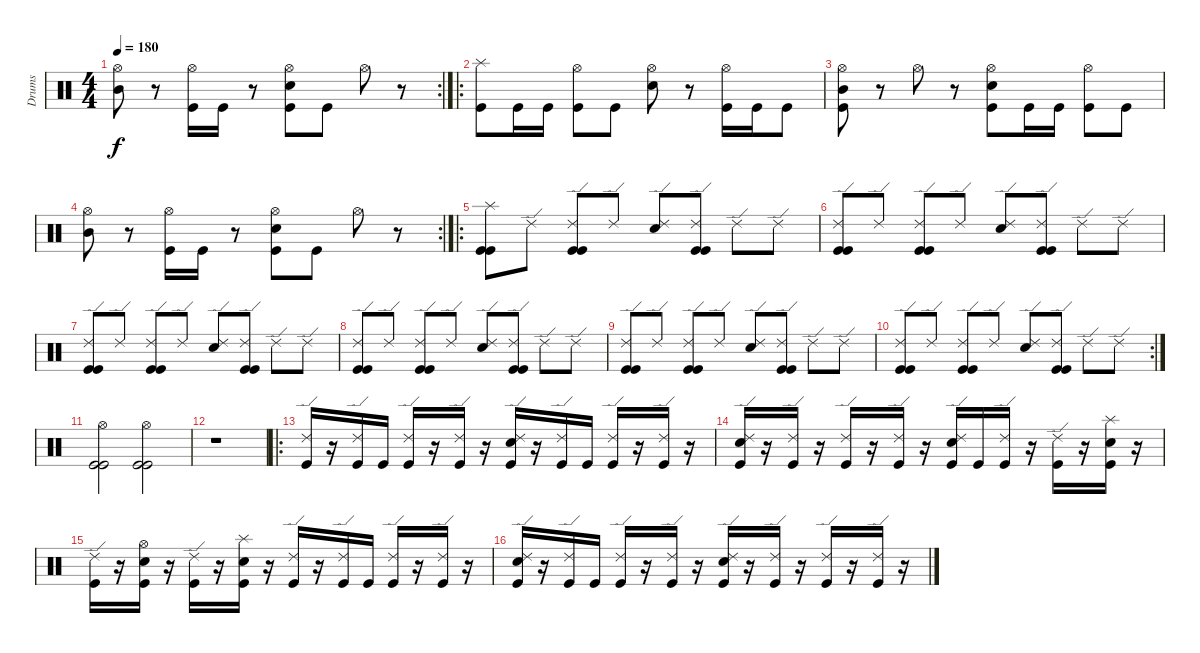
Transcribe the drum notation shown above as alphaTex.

\track ("Drums" "Drums") {instrument percussion}
\staff {score}
\articulation defaults
\rc 2
\ts (4 4)
\tempo 180
\clef neutral
\ks c
("Hi-Hat (open)" "Mid Tom (hit)").8{dy f} r.8 ("Hi-Hat (open)" "Kick (hit)").16 "Kick (hit)".16 r.8 ("Hi-Hat (open)" "Snare (hit) 2" "Kick (hit)").8 "Kick (hit)".8 "Hi-Hat (open)".8 r.8 |
\ro
("Splash (hit)" "Kick (hit)").8 "Kick (hit)".16 "Kick (hit)".16 ("Hi-Hat (open)" "Kick (hit)").8 "Kick (hit)".8 ("Hi-Hat (open)" "Snare (hit) 2").8 r.8 ("Hi-Hat (open)" "Kick (hit)").16 "Kick (hit)".16 "Kick (hit)".8 |
("Hi-Hat (open)" "Mid Tom (hit)" "Kick (hit)").8 r.8 "Hi-Hat (open)".8 r.8 ("Hi-Hat (open)" "Snare (hit) 2" "Kick (hit)").8 "Kick (hit)".16 "Kick (hit)".16 ("Hi-Hat (open)" "Kick (hit)").8 "Kick (hit)".8 |
\rc 2
("Hi-Hat (open)" "Mid Tom (hit)").8 r.8 ("Hi-Hat (open)" "Kick (hit)").16 "Kick (hit)".16 r.8 ("Hi-Hat (open)" "Snare (hit) 2" "Kick (hit)").8 "Kick (hit)".8 "Hi-Hat (open)".8 r.8 |
\ro
("Splash (hit)" "Kick (hit)" "Kick (hit)").8 "Ride (edge) 2".8 ("Ride (edge) 2" "Kick (hit)" "Kick (hit)").8 "Ride (edge) 2".8 ("Ride (edge) 2" "Snare (hit) 2").8 ("Ride (edge) 2" "Kick (hit)" "Kick (hit)").8 "Ride (edge) 2".8 "Ride (edge) 2".8 |
("Ride (edge) 2" "Kick (hit)" "Kick (hit)").8 "Ride (edge) 2".8 ("Ride (edge) 2" "Kick (hit)" "Kick (hit)").8 "Ride (edge) 2".8 ("Ride (edge) 2" "Snare (hit) 2").8 ("Ride (edge) 2" "Kick (hit)" "Kick (hit)").8 "Ride (edge) 2".8 "Ride (edge) 2".8 |
("Ride (edge) 2" "Kick (hit)" "Kick (hit)").8 "Ride (edge) 2".8 ("Ride (edge) 2" "Kick (hit)" "Kick (hit)").8 "Ride (edge) 2".8 ("Ride (edge) 2" "Snare (hit) 2").8 ("Ride (edge) 2" "Kick (hit)" "Kick (hit)").8 "Ride (edge) 2".8 "Ride (edge) 2".8 |
("Ride (edge) 2" "Kick (hit)" "Kick (hit)").8 "Ride (edge) 2".8 ("Ride (edge) 2" "Kick (hit)" "Kick (hit)").8 "Ride (edge) 2".8 ("Ride (edge) 2" "Snare (hit) 2").8 ("Ride (edge) 2" "Kick (hit)" "Kick (hit)").8 "Ride (edge) 2".8 "Ride (edge) 2".8 |
("Ride (edge) 2" "Kick (hit)" "Kick (hit)").8 "Ride (edge) 2".8 ("Ride (edge) 2" "Kick (hit)" "Kick (hit)").8 "Ride (edge) 2".8 ("Ride (edge) 2" "Snare (hit) 2").8 ("Ride (edge) 2" "Kick (hit)" "Kick (hit)").8 "Ride (edge) 2".8 "Ride (edge) 2".8 |
\rc 2
("Ride (edge) 2" "Kick (hit)" "Kick (hit)").8 "Ride (edge) 2".8 ("Ride (edge) 2" "Kick (hit)" "Kick (hit)").8 "Ride (edge) 2".8 ("Ride (edge) 2" "Snare (hit) 2").8 ("Ride (edge) 2" "Kick (hit)" "Kick (hit)").8 "Ride (edge) 2".8 "Ride (edge) 2".8 |
("Hi-Hat (open)" "Kick (hit)" "Kick (hit)").2 ("Hi-Hat (open)" "Kick (hit)" "Kick (hit)").2 |
r.1 |
\ro
("Ride (edge) 2" "Kick (hit)").16 r.16 ("Ride (edge) 2" "Kick (hit)").16 "Kick (hit)".16 ("Ride (edge) 2" "Kick (hit)").16 r.16 ("Ride (edge) 2" "Kick (hit)").16 r.16 ("Ride (edge) 2" "Snare (hit) 2" "Kick (hit)").16 r.16 ("Ride (edge) 2" "Kick (hit)").16 "Kick (hit)".16 ("Ride (edge) 2" "Kick (hit)").16 r.16 ("Ride (edge) 2" "Kick (hit)").16 r.16 |
("Ride (edge) 2" "Snare (hit) 2" "Kick (hit)").16 r.16 ("Ride (edge) 2" "Kick (hit)").16 r.16 ("Ride (edge) 2" "Kick (hit)").16 r.16 ("Ride (edge) 2" "Kick (hit)").16 r.16 ("Ride (edge) 2" "Snare (hit) 2" "Kick (hit)").16 "Kick (hit)".16 ("Ride (edge) 2" "Kick (hit)").16 r.16 ("Ride (edge) 2" "Kick (hit)").16 r.16 ("Splash (hit)" "Snare (hit) 2" "Kick (hit)").16 r.16 |
("Ride (edge) 2" "Kick (hit)").16 r.16 ("Hi-Hat (open)" "Snare (hit) 2" "Kick (hit)").16 r.16 ("Ride (edge) 2" "Kick (hit)").16 r.16 ("Splash (hit)" "Snare (hit) 2" "Kick (hit)").16 r.16 ("Ride (edge) 2" "Kick (hit)").16 r.16 ("Ride (edge) 2" "Kick (hit)").16 "Kick (hit)".16 ("Ride (edge) 2" "Kick (hit)").16 r.16 ("Ride (edge) 2" "Kick (hit)").16 r.16 |
("Ride (edge) 2" "Snare (hit) 2" "Kick (hit)").16 r.16 ("Ride (edge) 2" "Kick (hit)").16 "Kick (hit)".16 ("Ride (edge) 2" "Kick (hit)").16 r.16 ("Ride (edge) 2" "Kick (hit)").16 r.16 ("Ride (edge) 2" "Snare (hit) 2" "Kick (hit)").16 r.16 ("Ride (edge) 2" "Kick (hit)").16 r.16 ("Ride (edge) 2" "Kick (hit)").16 r.16 ("Ride (edge) 2" "Kick (hit)").16 r.16
